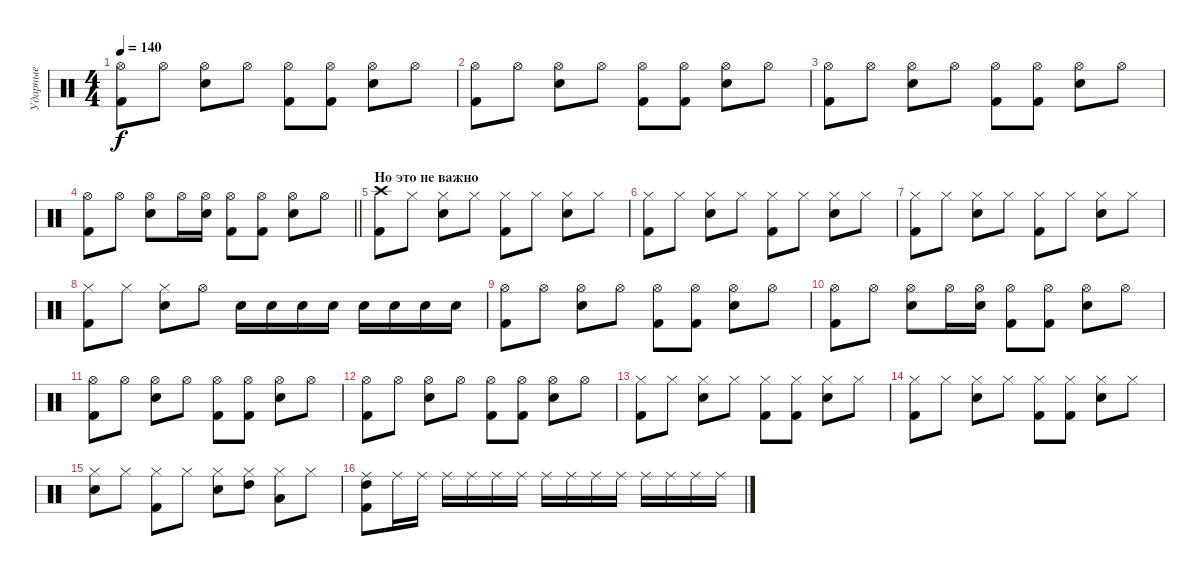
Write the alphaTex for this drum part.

\track ("Ударные" "Ударные") {instrument percussion}
\staff {score}
\articulation defaults
\ts (4 4)
\tempo 140
\clef neutral
\ks c
("Hi-Hat (open)" "Kick (hit) 2").8{dy f} "Hi-Hat (open)".8 ("Hi-Hat (open)" "Electric Snare (hit)").8 "Hi-Hat (open)".8 ("Hi-Hat (open)" "Kick (hit) 2").8 ("Hi-Hat (open)" "Kick (hit) 2").8 ("Hi-Hat (open)" "Electric Snare (hit)").8 "Hi-Hat (open)".8 |
("Hi-Hat (open)" "Kick (hit) 2").8 "Hi-Hat (open)".8 ("Hi-Hat (open)" "Electric Snare (hit)").8 "Hi-Hat (open)".8 ("Hi-Hat (open)" "Kick (hit) 2").8 ("Hi-Hat (open)" "Kick (hit) 2").8 ("Hi-Hat (open)" "Electric Snare (hit)").8 "Hi-Hat (open)".8 |
("Hi-Hat (open)" "Kick (hit) 2").8 "Hi-Hat (open)".8 ("Hi-Hat (open)" "Electric Snare (hit)").8 "Hi-Hat (open)".8 ("Hi-Hat (open)" "Kick (hit) 2").8 ("Hi-Hat (open)" "Kick (hit) 2").8 ("Hi-Hat (open)" "Electric Snare (hit)").8 "Hi-Hat (open)".8 |
\barLineRight lightlight
("Hi-Hat (open)" "Kick (hit) 2").8 "Hi-Hat (open)".8 ("Hi-Hat (open)" "Electric Snare (hit)").8 "Hi-Hat (open)".16 ("Hi-Hat (open)" "Electric Snare (hit)").16 ("Hi-Hat (open)" "Kick (hit) 2").8 ("Hi-Hat (open)" "Kick (hit) 2").8 ("Hi-Hat (open)" "Electric Snare (hit)").8 "Hi-Hat (open)".8 |
\section ("" "Но это не важно")
("Crash high (hit)" "Kick (hit) 2").8 "Hi-Hat (closed)".8 ("Hi-Hat (closed)" "Electric Snare (hit)").8 "Hi-Hat (closed)".8 ("Hi-Hat (closed)" "Kick (hit) 2").8 "Hi-Hat (closed)".8 ("Hi-Hat (closed)" "Electric Snare (hit)").8 "Hi-Hat (closed)".8 |
("Hi-Hat (closed)" "Kick (hit) 2").8 "Hi-Hat (closed)".8 ("Hi-Hat (closed)" "Electric Snare (hit)").8 "Hi-Hat (closed)".8 ("Hi-Hat (closed)" "Kick (hit) 2").8 "Hi-Hat (closed)".8 ("Hi-Hat (closed)" "Electric Snare (hit)").8 "Hi-Hat (closed)".8 |
("Hi-Hat (closed)" "Kick (hit) 2").8 "Hi-Hat (closed)".8 ("Hi-Hat (closed)" "Electric Snare (hit)").8 "Hi-Hat (closed)".8 ("Hi-Hat (closed)" "Kick (hit) 2").8 "Hi-Hat (closed)".8 ("Hi-Hat (closed)" "Electric Snare (hit)").8 "Hi-Hat (closed)".8 |
("Hi-Hat (closed)" "Kick (hit) 2").8 "Hi-Hat (closed)".8 ("Hi-Hat (closed)" "Electric Snare (hit)").8 "Hi-Hat (open)".8 "Electric Snare (hit)".16 "Electric Snare (hit)".16 "Electric Snare (hit)".16 "Electric Snare (hit)".16 "Electric Snare (hit)".16 "Electric Snare (hit)".16 "Electric Snare (hit)".16 "Electric Snare (hit)".16 |
("Hi-Hat (open)" "Kick (hit) 2").8 "Hi-Hat (open)".8 ("Hi-Hat (open)" "Electric Snare (hit)").8 "Hi-Hat (open)".8 ("Hi-Hat (open)" "Kick (hit) 2").8 ("Hi-Hat (open)" "Kick (hit) 2").8 ("Hi-Hat (open)" "Electric Snare (hit)").8 "Hi-Hat (open)".8 |
("Hi-Hat (open)" "Kick (hit) 2").8 "Hi-Hat (open)".8 ("Hi-Hat (open)" "Electric Snare (hit)").8 "Hi-Hat (open)".16 ("Hi-Hat (open)" "Electric Snare (hit)").16 ("Hi-Hat (open)" "Kick (hit) 2").8 ("Hi-Hat (open)" "Kick (hit) 2").8 ("Hi-Hat (open)" "Electric Snare (hit)").8 "Hi-Hat (open)".8 |
("Hi-Hat (open)" "Kick (hit) 2").8 "Hi-Hat (open)".8 ("Hi-Hat (open)" "Electric Snare (hit)").8 "Hi-Hat (open)".8 ("Hi-Hat (open)" "Kick (hit) 2").8 ("Hi-Hat (open)" "Kick (hit) 2").8 ("Hi-Hat (open)" "Electric Snare (hit)").8 "Hi-Hat (open)".8 |
("Hi-Hat (open)" "Kick (hit) 2").8 "Hi-Hat (open)".8 ("Hi-Hat (open)" "Electric Snare (hit)").8 "Hi-Hat (open)".8 ("Hi-Hat (open)" "Kick (hit) 2").8 ("Hi-Hat (open)" "Kick (hit) 2").8 ("Hi-Hat (open)" "Electric Snare (hit)").8 "Hi-Hat (open)".8 |
("Hi-Hat (closed)" "Kick (hit) 2").8 "Hi-Hat (closed)".8 ("Hi-Hat (closed)" "Electric Snare (hit)").8 "Hi-Hat (closed)".8 ("Hi-Hat (closed)" "Kick (hit) 2").8 ("Hi-Hat (closed)" "Kick (hit) 2").8 ("Hi-Hat (closed)" "Electric Snare (hit)").8 "Hi-Hat (closed)".8 |
("Hi-Hat (closed)" "Kick (hit) 2").8 "Hi-Hat (closed)".8 ("Hi-Hat (closed)" "Electric Snare (hit)").8 "Hi-Hat (closed)".8 ("Hi-Hat (closed)" "Kick (hit) 2").8 ("Hi-Hat (closed)" "Kick (hit) 2").8 ("Hi-Hat (closed)" "Electric Snare (hit)").8 "Hi-Hat (closed)".8 |
("Hi-Hat (closed)" "Electric Snare (hit)").8 "Hi-Hat (closed)".8 ("Hi-Hat (closed)" "Kick (hit) 2").8 "Hi-Hat (closed)".8 ("Hi-Hat (closed)" "Electric Snare (hit)").8 ("Hi-Hat (closed)" "High Tom (hit)").8 ("Hi-Hat (closed)" "Low Tom (hit)").8 "Hi-Hat (closed)".8 |
("High Tom (hit)" "Kick (hit) 2" "Ride (middle)").8{volume 5} "Ride (middle)".16 "Ride (middle)".16 "Ride (middle)".16 "Ride (middle)".16 "Ride (middle)".16 "Ride (middle)".16 "Ride (middle)".16 "Ride (middle)".16 "Ride (middle)".16 "Ride (middle)".16 "Ride (middle)".16 "Ride (middle)".16 "Ride (middle)".16 "Ride (middle)".16
